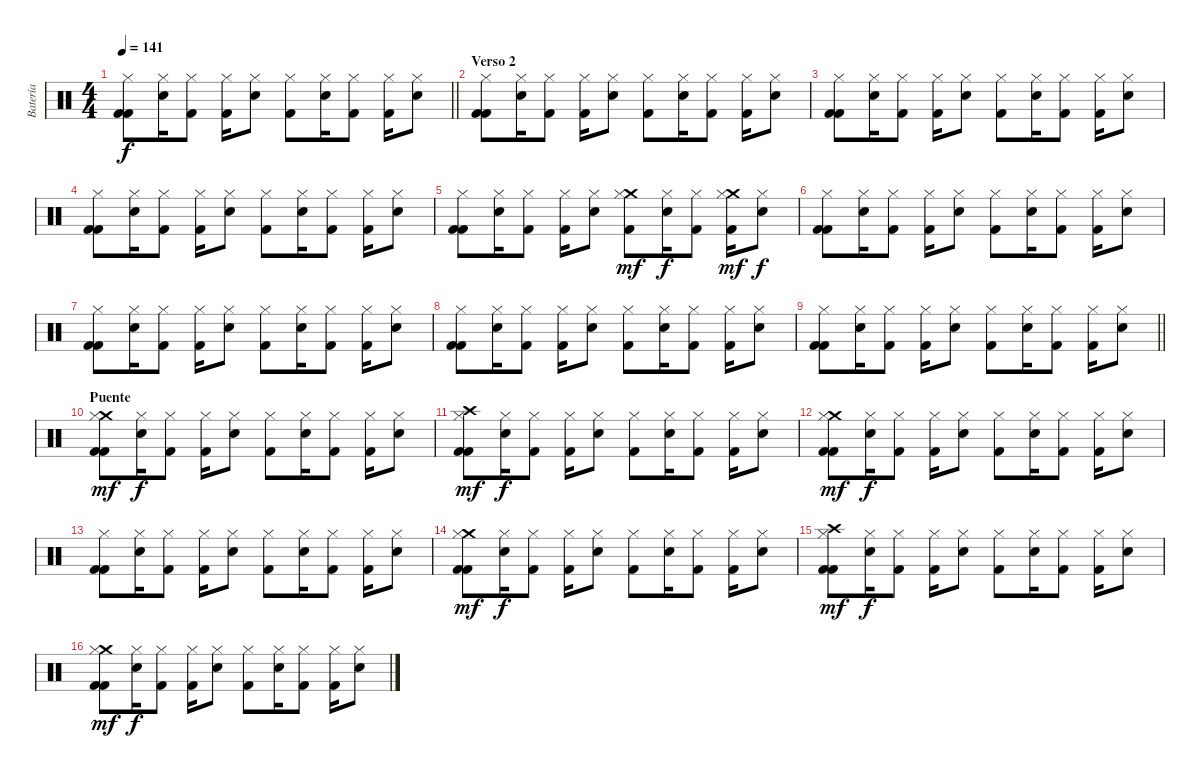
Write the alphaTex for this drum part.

\track ("Batería" "Batería") {instrument percussion}
\staff {score}
\articulation defaults
\ts (4 4)
\tempo 141
\clef neutral
\barLineRight lightlight
\ks c
("Hi-Hat (closed)" "Kick (hit) 2" "Kick (hit) 2").8{dy f} ("Hi-Hat (closed)" "Electric Snare (hit)").16 ("Hi-Hat (closed)" "Kick (hit) 2").8 ("Hi-Hat (closed)" "Kick (hit) 2").16 ("Hi-Hat (closed)" "Electric Snare (hit)").8 ("Hi-Hat (closed)" "Kick (hit) 2").8 ("Hi-Hat (closed)" "Electric Snare (hit)").16 ("Hi-Hat (closed)" "Kick (hit) 2").8 ("Hi-Hat (closed)" "Kick (hit) 2").16 ("Hi-Hat (closed)" "Electric Snare (hit)").8 |
\section ("" "Verso 2")
("Hi-Hat (closed)" "Kick (hit) 2" "Kick (hit) 2").8 ("Hi-Hat (closed)" "Electric Snare (hit)").16 ("Hi-Hat (closed)" "Kick (hit) 2").8 ("Hi-Hat (closed)" "Kick (hit) 2").16 ("Hi-Hat (closed)" "Electric Snare (hit)").8 ("Hi-Hat (closed)" "Kick (hit) 2").8 ("Hi-Hat (closed)" "Electric Snare (hit)").16 ("Hi-Hat (closed)" "Kick (hit) 2").8 ("Hi-Hat (closed)" "Kick (hit) 2").16 ("Hi-Hat (closed)" "Electric Snare (hit)").8 |
("Hi-Hat (closed)" "Kick (hit) 2" "Kick (hit) 2").8 ("Hi-Hat (closed)" "Electric Snare (hit)").16 ("Hi-Hat (closed)" "Kick (hit) 2").8 ("Hi-Hat (closed)" "Kick (hit) 2").16 ("Hi-Hat (closed)" "Electric Snare (hit)").8 ("Hi-Hat (closed)" "Kick (hit) 2").8 ("Hi-Hat (closed)" "Electric Snare (hit)").16 ("Hi-Hat (closed)" "Kick (hit) 2").8 ("Hi-Hat (closed)" "Kick (hit) 2").16 ("Hi-Hat (closed)" "Electric Snare (hit)").8 |
("Hi-Hat (closed)" "Kick (hit) 2" "Kick (hit) 2").8 ("Hi-Hat (closed)" "Electric Snare (hit)").16 ("Hi-Hat (closed)" "Kick (hit) 2").8 ("Hi-Hat (closed)" "Kick (hit) 2").16 ("Hi-Hat (closed)" "Electric Snare (hit)").8 ("Hi-Hat (closed)" "Kick (hit) 2").8 ("Hi-Hat (closed)" "Electric Snare (hit)").16 ("Hi-Hat (closed)" "Kick (hit) 2").8 ("Hi-Hat (closed)" "Kick (hit) 2").16 ("Hi-Hat (closed)" "Electric Snare (hit)").8 |
("Hi-Hat (closed)" "Kick (hit) 2" "Kick (hit) 2").8 ("Hi-Hat (closed)" "Electric Snare (hit)").16 ("Hi-Hat (closed)" "Kick (hit) 2").8 ("Hi-Hat (closed)" "Kick (hit) 2").16 ("Hi-Hat (closed)" "Electric Snare (hit)").8 ("Crash medium (hit)" "Hi-Hat (closed)" "Kick (hit) 2").8{dy mf} ("Hi-Hat (closed)" "Electric Snare (hit)").16{dy f} ("Hi-Hat (closed)" "Kick (hit) 2").8 ("Crash medium (hit)" "Hi-Hat (closed)" "Kick (hit) 2").16{dy mf} ("Hi-Hat (closed)" "Electric Snare (hit)").8{dy f} |
("Hi-Hat (closed)" "Kick (hit) 2" "Kick (hit) 2").8 ("Hi-Hat (closed)" "Electric Snare (hit)").16 ("Hi-Hat (closed)" "Kick (hit) 2").8 ("Hi-Hat (closed)" "Kick (hit) 2").16 ("Hi-Hat (closed)" "Electric Snare (hit)").8 ("Hi-Hat (closed)" "Kick (hit) 2").8 ("Hi-Hat (closed)" "Electric Snare (hit)").16 ("Hi-Hat (closed)" "Kick (hit) 2").8 ("Hi-Hat (closed)" "Kick (hit) 2").16 ("Hi-Hat (closed)" "Electric Snare (hit)").8 |
("Hi-Hat (closed)" "Kick (hit) 2" "Kick (hit) 2").8 ("Hi-Hat (closed)" "Electric Snare (hit)").16 ("Hi-Hat (closed)" "Kick (hit) 2").8 ("Hi-Hat (closed)" "Kick (hit) 2").16 ("Hi-Hat (closed)" "Electric Snare (hit)").8 ("Hi-Hat (closed)" "Kick (hit) 2").8 ("Hi-Hat (closed)" "Electric Snare (hit)").16 ("Hi-Hat (closed)" "Kick (hit) 2").8 ("Hi-Hat (closed)" "Kick (hit) 2").16 ("Hi-Hat (closed)" "Electric Snare (hit)").8 |
("Hi-Hat (closed)" "Kick (hit) 2" "Kick (hit) 2").8 ("Hi-Hat (closed)" "Electric Snare (hit)").16 ("Hi-Hat (closed)" "Kick (hit) 2").8 ("Hi-Hat (closed)" "Kick (hit) 2").16 ("Hi-Hat (closed)" "Electric Snare (hit)").8 ("Hi-Hat (closed)" "Kick (hit) 2").8 ("Hi-Hat (closed)" "Electric Snare (hit)").16 ("Hi-Hat (closed)" "Kick (hit) 2").8 ("Hi-Hat (closed)" "Kick (hit) 2").16 ("Hi-Hat (closed)" "Electric Snare (hit)").8 |
\barLineRight lightlight
("Hi-Hat (closed)" "Kick (hit) 2" "Kick (hit) 2").8 ("Hi-Hat (closed)" "Electric Snare (hit)").16 ("Hi-Hat (closed)" "Kick (hit) 2").8 ("Hi-Hat (closed)" "Kick (hit) 2").16 ("Hi-Hat (closed)" "Electric Snare (hit)").8 ("Hi-Hat (closed)" "Kick (hit) 2").8 ("Hi-Hat (closed)" "Electric Snare (hit)").16 ("Hi-Hat (closed)" "Kick (hit) 2").8 ("Hi-Hat (closed)" "Kick (hit) 2").16 ("Hi-Hat (closed)" "Electric Snare (hit)").8 |
\section ("" "Puente")
("Crash medium (hit)" "Hi-Hat (closed)" "Kick (hit) 2" "Kick (hit) 2").8{dy mf} ("Hi-Hat (closed)" "Electric Snare (hit)").16{dy f} ("Hi-Hat (closed)" "Kick (hit) 2").8 ("Hi-Hat (closed)" "Kick (hit) 2").16 ("Hi-Hat (closed)" "Electric Snare (hit)").8 ("Hi-Hat (closed)" "Kick (hit) 2").8 ("Hi-Hat (closed)" "Electric Snare (hit)").16 ("Hi-Hat (closed)" "Kick (hit) 2").8 ("Hi-Hat (closed)" "Kick (hit) 2").16 ("Hi-Hat (closed)" "Electric Snare (hit)").8 |
("Crash high (hit)" "Hi-Hat (closed)" "Kick (hit) 2" "Kick (hit) 2").8{dy mf} ("Hi-Hat (closed)" "Electric Snare (hit)").16{dy f} ("Hi-Hat (closed)" "Kick (hit) 2").8 ("Hi-Hat (closed)" "Kick (hit) 2").16 ("Hi-Hat (closed)" "Electric Snare (hit)").8 ("Hi-Hat (closed)" "Kick (hit) 2").8 ("Hi-Hat (closed)" "Electric Snare (hit)").16 ("Hi-Hat (closed)" "Kick (hit) 2").8 ("Hi-Hat (closed)" "Kick (hit) 2").16 ("Hi-Hat (closed)" "Electric Snare (hit)").8 |
("Crash medium (hit)" "Hi-Hat (closed)" "Kick (hit) 2" "Kick (hit) 2").8{dy mf} ("Hi-Hat (closed)" "Electric Snare (hit)").16{dy f} ("Hi-Hat (closed)" "Kick (hit) 2").8 ("Hi-Hat (closed)" "Kick (hit) 2").16 ("Hi-Hat (closed)" "Electric Snare (hit)").8 ("Hi-Hat (closed)" "Kick (hit) 2").8 ("Hi-Hat (closed)" "Electric Snare (hit)").16 ("Hi-Hat (closed)" "Kick (hit) 2").8 ("Hi-Hat (closed)" "Kick (hit) 2").16 ("Hi-Hat (closed)" "Electric Snare (hit)").8 |
("Hi-Hat (closed)" "Kick (hit) 2" "Kick (hit) 2").8 ("Hi-Hat (closed)" "Electric Snare (hit)").16 ("Hi-Hat (closed)" "Kick (hit) 2").8 ("Hi-Hat (closed)" "Kick (hit) 2").16 ("Hi-Hat (closed)" "Electric Snare (hit)").8 ("Hi-Hat (closed)" "Kick (hit) 2").8 ("Hi-Hat (closed)" "Electric Snare (hit)").16 ("Hi-Hat (closed)" "Kick (hit) 2").8 ("Hi-Hat (closed)" "Kick (hit) 2").16 ("Hi-Hat (closed)" "Electric Snare (hit)").8 |
("Crash medium (hit)" "Hi-Hat (closed)" "Kick (hit) 2" "Kick (hit) 2").8{dy mf} ("Hi-Hat (closed)" "Electric Snare (hit)").16{dy f} ("Hi-Hat (closed)" "Kick (hit) 2").8 ("Hi-Hat (closed)" "Kick (hit) 2").16 ("Hi-Hat (closed)" "Electric Snare (hit)").8 ("Hi-Hat (closed)" "Kick (hit) 2").8 ("Hi-Hat (closed)" "Electric Snare (hit)").16 ("Hi-Hat (closed)" "Kick (hit) 2").8 ("Hi-Hat (closed)" "Kick (hit) 2").16 ("Hi-Hat (closed)" "Electric Snare (hit)").8 |
("Crash high (hit)" "Hi-Hat (closed)" "Kick (hit) 2" "Kick (hit) 2").8{dy mf} ("Hi-Hat (closed)" "Electric Snare (hit)").16{dy f} ("Hi-Hat (closed)" "Kick (hit) 2").8 ("Hi-Hat (closed)" "Kick (hit) 2").16 ("Hi-Hat (closed)" "Electric Snare (hit)").8 ("Hi-Hat (closed)" "Kick (hit) 2").8 ("Hi-Hat (closed)" "Electric Snare (hit)").16 ("Hi-Hat (closed)" "Kick (hit) 2").8 ("Hi-Hat (closed)" "Kick (hit) 2").16 ("Hi-Hat (closed)" "Electric Snare (hit)").8 |
("Crash medium (hit)" "Hi-Hat (closed)" "Kick (hit) 2" "Kick (hit) 2").8{dy mf} ("Hi-Hat (closed)" "Electric Snare (hit)").16{dy f} ("Hi-Hat (closed)" "Kick (hit) 2").8 ("Hi-Hat (closed)" "Kick (hit) 2").16 ("Hi-Hat (closed)" "Electric Snare (hit)").8 ("Hi-Hat (closed)" "Kick (hit) 2").8 ("Hi-Hat (closed)" "Electric Snare (hit)").16 ("Hi-Hat (closed)" "Kick (hit) 2").8 ("Hi-Hat (closed)" "Kick (hit) 2").16 ("Hi-Hat (closed)" "Electric Snare (hit)").8
